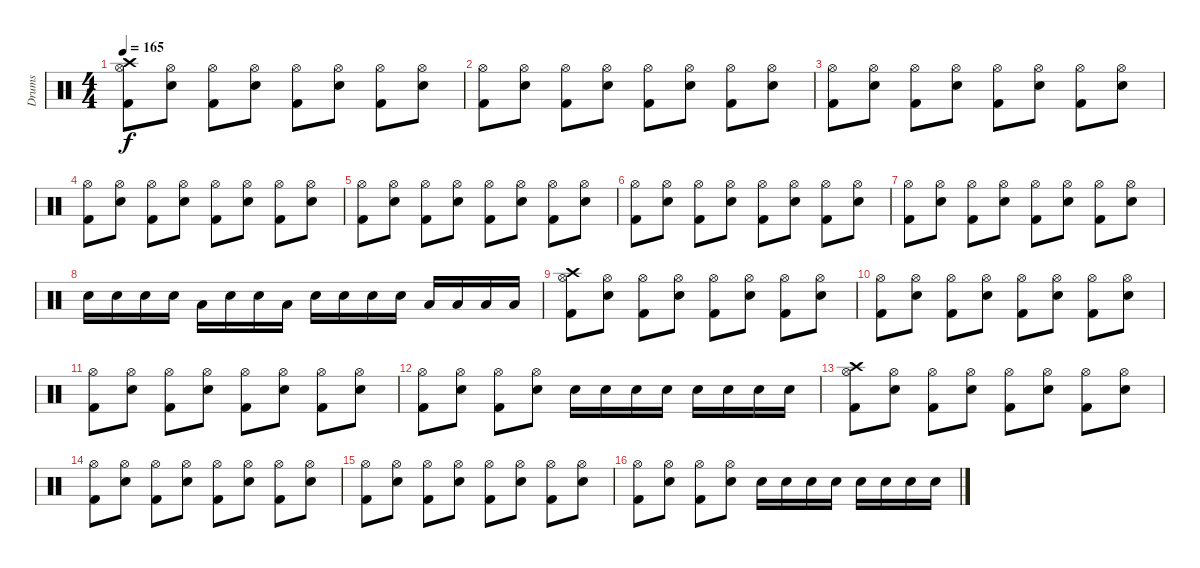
\track ("Drums" "Drums") {instrument percussion}
\staff {score}
\articulation defaults
\ts (4 4)
\tempo 165
\clef neutral
\ks c
("Crash high (hit)" "Hi-Hat (open)" "Kick (hit) 2").8{dy f} ("Hi-Hat (open)" "Snare (hit) 2").8 ("Hi-Hat (open)" "Kick (hit) 2").8 ("Hi-Hat (open)" "Snare (hit) 2").8 ("Hi-Hat (open)" "Kick (hit) 2").8 ("Hi-Hat (open)" "Snare (hit) 2").8 ("Hi-Hat (open)" "Kick (hit) 2").8 ("Hi-Hat (open)" "Snare (hit) 2").8 |
("Hi-Hat (open)" "Kick (hit) 2").8 ("Hi-Hat (open)" "Snare (hit) 2").8 ("Hi-Hat (open)" "Kick (hit) 2").8 ("Hi-Hat (open)" "Snare (hit) 2").8 ("Hi-Hat (open)" "Kick (hit) 2").8 ("Hi-Hat (open)" "Snare (hit) 2").8 ("Hi-Hat (open)" "Kick (hit) 2").8 ("Hi-Hat (open)" "Snare (hit) 2").8 |
("Hi-Hat (open)" "Kick (hit) 2").8 ("Hi-Hat (open)" "Snare (hit) 2").8 ("Hi-Hat (open)" "Kick (hit) 2").8 ("Hi-Hat (open)" "Snare (hit) 2").8 ("Hi-Hat (open)" "Kick (hit) 2").8 ("Hi-Hat (open)" "Snare (hit) 2").8 ("Hi-Hat (open)" "Kick (hit) 2").8 ("Hi-Hat (open)" "Snare (hit) 2").8 |
("Hi-Hat (open)" "Kick (hit) 2").8 ("Hi-Hat (open)" "Snare (hit) 2").8 ("Hi-Hat (open)" "Kick (hit) 2").8 ("Hi-Hat (open)" "Snare (hit) 2").8 ("Hi-Hat (open)" "Kick (hit) 2").8 ("Hi-Hat (open)" "Snare (hit) 2").8 ("Hi-Hat (open)" "Kick (hit) 2").8 ("Hi-Hat (open)" "Snare (hit) 2").8 |
("Hi-Hat (open)" "Kick (hit) 2").8 ("Hi-Hat (open)" "Snare (hit) 2").8 ("Hi-Hat (open)" "Kick (hit) 2").8 ("Hi-Hat (open)" "Snare (hit) 2").8 ("Hi-Hat (open)" "Kick (hit) 2").8 ("Hi-Hat (open)" "Snare (hit) 2").8 ("Hi-Hat (open)" "Kick (hit) 2").8 ("Hi-Hat (open)" "Snare (hit) 2").8 |
("Hi-Hat (open)" "Kick (hit) 2").8 ("Hi-Hat (open)" "Snare (hit) 2").8 ("Hi-Hat (open)" "Kick (hit) 2").8 ("Hi-Hat (open)" "Snare (hit) 2").8 ("Hi-Hat (open)" "Kick (hit) 2").8 ("Hi-Hat (open)" "Snare (hit) 2").8 ("Hi-Hat (open)" "Kick (hit) 2").8 ("Hi-Hat (open)" "Snare (hit) 2").8 |
("Hi-Hat (open)" "Kick (hit) 2").8 ("Hi-Hat (open)" "Snare (hit) 2").8 ("Hi-Hat (open)" "Kick (hit) 2").8 ("Hi-Hat (open)" "Snare (hit) 2").8 ("Hi-Hat (open)" "Kick (hit) 2").8 ("Hi-Hat (open)" "Snare (hit) 2").8 ("Hi-Hat (open)" "Kick (hit) 2").8 ("Hi-Hat (open)" "Snare (hit) 2").8 |
"Snare (hit) 2".16 "Snare (hit) 2".16 "Snare (hit) 2".16 "Snare (hit) 2".16 "Low Floor Tom (hit)".16 "Snare (hit) 2".16 "Snare (hit) 2".16 "Low Floor Tom (hit)".16 "Snare (hit) 2".16 "Snare (hit) 2".16 "Snare (hit) 2".16 "Snare (hit) 2".16 "Low Tom (hit)".16 "Low Tom (hit)".16 "Low Floor Tom (hit)".16 "Low Floor Tom (hit)".16 |
("Crash high (hit)" "Hi-Hat (open)" "Kick (hit) 2").8 ("Hi-Hat (open)" "Snare (hit) 2").8 ("Hi-Hat (open)" "Kick (hit) 2").8 ("Hi-Hat (open)" "Snare (hit) 2").8 ("Hi-Hat (open)" "Kick (hit) 2").8 ("Hi-Hat (open)" "Snare (hit) 2").8 ("Hi-Hat (open)" "Kick (hit) 2").8 ("Hi-Hat (open)" "Snare (hit) 2").8 |
("Hi-Hat (open)" "Kick (hit) 2").8 ("Hi-Hat (open)" "Snare (hit) 2").8 ("Hi-Hat (open)" "Kick (hit) 2").8 ("Hi-Hat (open)" "Snare (hit) 2").8 ("Hi-Hat (open)" "Kick (hit) 2").8 ("Hi-Hat (open)" "Snare (hit) 2").8 ("Hi-Hat (open)" "Kick (hit) 2").8 ("Hi-Hat (open)" "Snare (hit) 2").8 |
("Hi-Hat (open)" "Kick (hit) 2").8 ("Hi-Hat (open)" "Snare (hit) 2").8 ("Hi-Hat (open)" "Kick (hit) 2").8 ("Hi-Hat (open)" "Snare (hit) 2").8 ("Hi-Hat (open)" "Kick (hit) 2").8 ("Hi-Hat (open)" "Snare (hit) 2").8 ("Hi-Hat (open)" "Kick (hit) 2").8 ("Hi-Hat (open)" "Snare (hit) 2").8 |
("Hi-Hat (open)" "Kick (hit) 2").8 ("Hi-Hat (open)" "Snare (hit) 2").8 ("Hi-Hat (open)" "Kick (hit) 2").8 ("Hi-Hat (open)" "Snare (hit) 2").8 "Snare (hit) 2".16 "Snare (hit) 2".16 "Snare (hit) 2".16 "Snare (hit) 2".16 "Snare (hit) 2".16 "Snare (hit) 2".16 "Snare (hit) 2".16 "Snare (hit) 2".16 |
("Crash high (hit)" "Hi-Hat (open)" "Kick (hit) 2").8 ("Hi-Hat (open)" "Snare (hit) 2").8 ("Hi-Hat (open)" "Kick (hit) 2").8 ("Hi-Hat (open)" "Snare (hit) 2").8 ("Hi-Hat (open)" "Kick (hit) 2").8 ("Hi-Hat (open)" "Snare (hit) 2").8 ("Hi-Hat (open)" "Kick (hit) 2").8 ("Hi-Hat (open)" "Snare (hit) 2").8 |
("Hi-Hat (open)" "Kick (hit) 2").8 ("Hi-Hat (open)" "Snare (hit) 2").8 ("Hi-Hat (open)" "Kick (hit) 2").8 ("Hi-Hat (open)" "Snare (hit) 2").8 ("Hi-Hat (open)" "Kick (hit) 2").8 ("Hi-Hat (open)" "Snare (hit) 2").8 ("Hi-Hat (open)" "Kick (hit) 2").8 ("Hi-Hat (open)" "Snare (hit) 2").8 |
("Hi-Hat (open)" "Kick (hit) 2").8 ("Hi-Hat (open)" "Snare (hit) 2").8 ("Hi-Hat (open)" "Kick (hit) 2").8 ("Hi-Hat (open)" "Snare (hit) 2").8 ("Hi-Hat (open)" "Kick (hit) 2").8 ("Hi-Hat (open)" "Snare (hit) 2").8 ("Hi-Hat (open)" "Kick (hit) 2").8 ("Hi-Hat (open)" "Snare (hit) 2").8 |
("Hi-Hat (open)" "Kick (hit) 2").8 ("Hi-Hat (open)" "Snare (hit) 2").8 ("Hi-Hat (open)" "Kick (hit) 2").8 ("Hi-Hat (open)" "Snare (hit) 2").8 "Snare (hit) 2".16 "Snare (hit) 2".16 "Snare (hit) 2".16 "Snare (hit) 2".16 "Snare (hit) 2".16 "Snare (hit) 2".16 "Snare (hit) 2".16 "Snare (hit) 2".16
